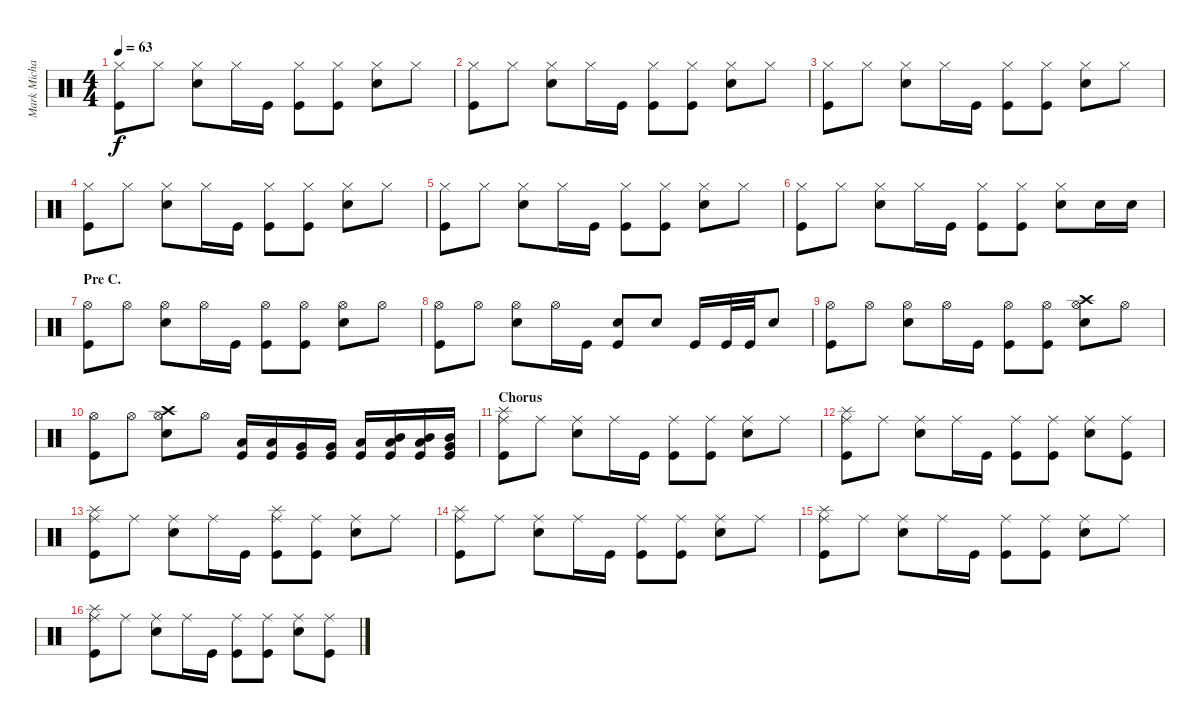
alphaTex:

\track ("Mark Michals - Drums" "Mark Micha") {instrument percussion}
\staff {score}
\articulation defaults
\ts (4 4)
\tempo 63
\clef neutral
\ks c
("Hi-Hat (closed)" "Kick (hit)").8{dy f} "Hi-Hat (closed)".8 ("Hi-Hat (closed)" "Snare (hit) 2").8 "Hi-Hat (closed)".16 "Kick (hit)".16 ("Hi-Hat (closed)" "Kick (hit)").8 ("Hi-Hat (closed)" "Kick (hit)").8 ("Hi-Hat (closed)" "Snare (hit) 2").8 "Hi-Hat (closed)".8 |
("Hi-Hat (closed)" "Kick (hit)").8 "Hi-Hat (closed)".8 ("Hi-Hat (closed)" "Snare (hit) 2").8 "Hi-Hat (closed)".16 "Kick (hit)".16 ("Hi-Hat (closed)" "Kick (hit)").8 ("Hi-Hat (closed)" "Kick (hit)").8 ("Hi-Hat (closed)" "Snare (hit) 2").8 "Hi-Hat (closed)".8 |
("Hi-Hat (closed)" "Kick (hit)").8 "Hi-Hat (closed)".8 ("Hi-Hat (closed)" "Snare (hit) 2").8 "Hi-Hat (closed)".16 "Kick (hit)".16 ("Hi-Hat (closed)" "Kick (hit)").8 ("Hi-Hat (closed)" "Kick (hit)").8 ("Hi-Hat (closed)" "Snare (hit) 2").8 "Hi-Hat (closed)".8 |
("Hi-Hat (closed)" "Kick (hit)").8 "Hi-Hat (closed)".8 ("Hi-Hat (closed)" "Snare (hit) 2").8 "Hi-Hat (closed)".16 "Kick (hit)".16 ("Hi-Hat (closed)" "Kick (hit)").8 ("Hi-Hat (closed)" "Kick (hit)").8 ("Hi-Hat (closed)" "Snare (hit) 2").8 "Hi-Hat (closed)".8 |
("Hi-Hat (closed)" "Kick (hit)").8 "Hi-Hat (closed)".8 ("Hi-Hat (closed)" "Snare (hit) 2").8 "Hi-Hat (closed)".16 "Kick (hit)".16 ("Hi-Hat (closed)" "Kick (hit)").8 ("Hi-Hat (closed)" "Kick (hit)").8 ("Hi-Hat (closed)" "Snare (hit) 2").8 "Hi-Hat (closed)".8 |
("Hi-Hat (closed)" "Kick (hit)").8 "Hi-Hat (closed)".8 ("Hi-Hat (closed)" "Snare (hit) 2").8 "Hi-Hat (closed)".16 "Kick (hit)".16 ("Hi-Hat (closed)" "Kick (hit)").8 ("Hi-Hat (closed)" "Kick (hit)").8 ("Hi-Hat (closed)" "Snare (hit) 2").8 "Snare (hit) 2".16 "Snare (hit) 2".16 |
\section ("" "Pre C.")
("Hi-Hat (open)" "Kick (hit)").8 "Hi-Hat (open)".8 ("Hi-Hat (open)" "Snare (hit) 2").8 "Hi-Hat (open)".16 "Kick (hit)".16 ("Hi-Hat (open)" "Kick (hit)").8 ("Hi-Hat (open)" "Kick (hit)").8 ("Hi-Hat (open)" "Snare (hit) 2").8 "Hi-Hat (open)".8 |
("Hi-Hat (open)" "Kick (hit)").8 "Hi-Hat (open)".8 ("Hi-Hat (open)" "Snare (hit) 2").8 "Hi-Hat (open)".16 "Kick (hit)".16 ("Snare (hit) 2" "Kick (hit)").8 "Snare (hit) 2".8 "Kick (hit)".16 "Kick (hit)".32 "Kick (hit)".32 "Snare (hit) 2".8 |
("Hi-Hat (open)" "Kick (hit)").8 "Hi-Hat (open)".8 ("Hi-Hat (open)" "Snare (hit) 2").8 "Hi-Hat (open)".16 "Kick (hit)".16 ("Hi-Hat (open)" "Kick (hit)").8 ("Hi-Hat (open)" "Kick (hit)").8 ("Hi-Hat (open)" "Crash high (hit)" "Snare (hit) 2").8 "Hi-Hat (open)".8 |
("Hi-Hat (open)" "Kick (hit)").8 "Hi-Hat (open)".8 ("Hi-Hat (open)" "Crash high (hit)" "Snare (hit) 2").8 "Hi-Hat (open)".8 ("Low Floor Tom (hit)" "Kick (hit)").16 ("Low Floor Tom (hit)" "Kick (hit)").16 ("Very Low Tom (hit)" "Kick (hit)").16 ("Very Low Tom (hit)" "Kick (hit)").16 ("Low Tom (hit)" "Kick (hit)").16 ("Mid Tom (hit)" "Low Tom (hit)" "Kick (hit)").16 ("Low Tom (hit)" "Mid Tom (hit)" "Kick (hit)").16 ("Very Low Tom (hit)" "Mid Tom (hit)" "Kick (hit)").16 |
\section ("" "Chorus")
("Ride (middle)" "Splash (hit)" "Kick (hit)").8 "Ride (middle)".8 ("Ride (middle)" "Snare (hit) 2").8 "Ride (middle)".16 "Kick (hit)".16 ("Ride (middle)" "Kick (hit)").8 ("Ride (middle)" "Kick (hit)").8 ("Ride (middle)" "Snare (hit) 2").8 "Ride (middle)".8 |
("Ride (middle)" "Splash (hit)" "Kick (hit)").8 "Ride (middle)".8 ("Ride (middle)" "Snare (hit) 2").8 "Ride (middle)".16 "Kick (hit)".16 ("Ride (middle)" "Kick (hit)").8 ("Ride (middle)" "Kick (hit)").8 ("Ride (middle)" "Snare (hit) 2").8 ("Ride (middle)" "Kick (hit)").8 |
("Ride (middle)" "Splash (hit)" "Kick (hit)").8 "Ride (middle)".8 ("Ride (middle)" "Snare (hit) 2").8 "Ride (middle)".16 "Kick (hit)".16 ("Ride (middle)" "Splash (hit)" "Kick (hit)").8 ("Ride (middle)" "Kick (hit)").8 ("Ride (middle)" "Snare (hit) 2").8 "Ride (middle)".8 |
("Ride (middle)" "Splash (hit)" "Kick (hit)").8 "Ride (middle)".8 ("Ride (middle)" "Snare (hit) 2").8 "Ride (middle)".16 "Kick (hit)".16 ("Ride (middle)" "Kick (hit)").8 ("Ride (middle)" "Kick (hit)").8 ("Ride (middle)" "Snare (hit) 2").8 "Ride (middle)".8 |
("Ride (middle)" "Splash (hit)" "Kick (hit)").8 "Ride (middle)".8 ("Ride (middle)" "Snare (hit) 2").8 "Ride (middle)".16 "Kick (hit)".16 ("Ride (middle)" "Kick (hit)").8 ("Ride (middle)" "Kick (hit)").8 ("Ride (middle)" "Snare (hit) 2").8 "Ride (middle)".8 |
("Ride (middle)" "Splash (hit)" "Kick (hit)").8 "Ride (middle)".8 ("Ride (middle)" "Snare (hit) 2").8 "Ride (middle)".16 "Kick (hit)".16 ("Ride (middle)" "Kick (hit)").8 ("Ride (middle)" "Kick (hit)").8 ("Ride (middle)" "Snare (hit) 2").8 ("Ride (middle)" "Kick (hit)").8
